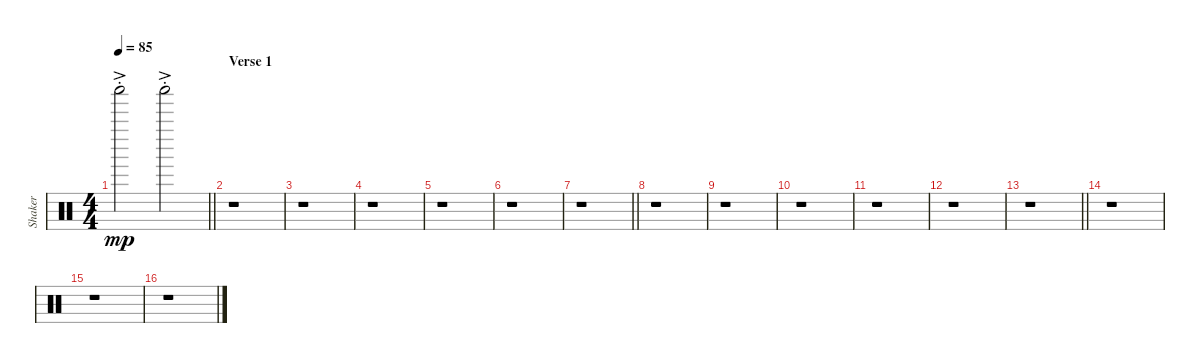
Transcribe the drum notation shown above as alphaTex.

\track ("Shaker" "Shaker") {instrument percussion}
\staff {score}
\articulation defaults
\ts (4 4)
\tempo 85
\clef neutral
\barLineRight lightlight
\ks c "Shaker (hit)"{ac st}.2{dy mp} "Shaker (hit)"{ac st}.2
|
\section ("" "Verse 1")
r.1 |
r.1 |
r.1 |
r.1 |
r.1 |
\barLineRight lightlight
r.1 |
r.1 |
r.1 |
r.1 |
r.1 |
r.1 |
\barLineRight lightlight
r.1 |
r.1 |
r.1 |
r.1
